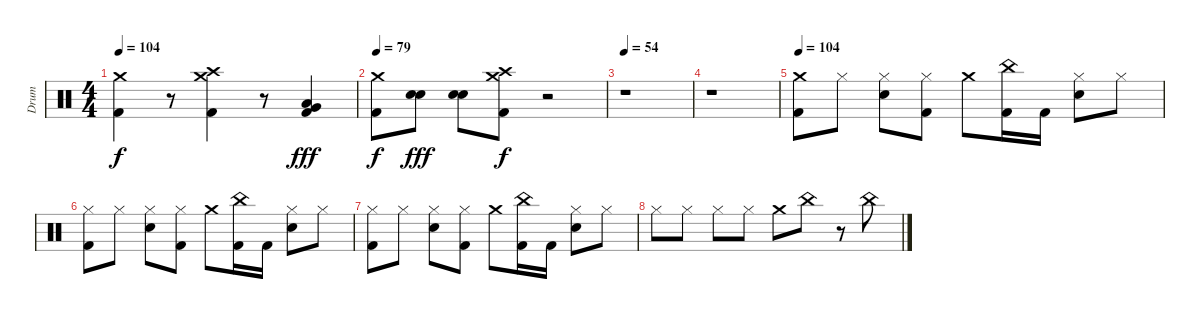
\track ("Drum" "Drum") {instrument percussion}
\staff {score}
\articulation defaults
\ts (4 4)
\tempo 104
\clef neutral
\ks c
("Crash medium (hit)" "Kick (hit) 2").4{dy f} r.8 ("Crash high (hit)" "Crash medium (hit)" "Kick (hit) 2").4 r.8 ("Very Low Tom (hit)" "Low Tom (hit)" "Kick (hit) 2").4{dy fff} |
\tempo 79
("Crash medium (hit)" "Kick (hit) 2").8{dy f} ("Snare (hit) 2" "Electric Snare (hit)").8{dy fff} ("Snare (hit) 2" "Electric Snare (hit)").8 ("Crash high (hit)" "Crash medium (hit)" "Kick (hit) 2").8{dy f} r.2 |
\tempo 54
r.1 |
r.1 |
\tempo 104
("Crash medium (hit)" "Kick (hit) 2").8 "Hi-Hat (closed)".8 ("Snare (hit) 2" "Hi-Hat (closed)").8 ("Hi-Hat (closed)" "Kick (hit) 2").8 "Crash medium (hit)".8 ("China (hit)" "Kick (hit) 2").16 "Kick (hit) 2".16 ("Snare (hit) 2" "Hi-Hat (closed)").8 "Hi-Hat (closed)".8 |
("Hi-Hat (closed)" "Kick (hit) 2").8 "Hi-Hat (closed)".8 ("Snare (hit) 2" "Hi-Hat (closed)").8 ("Hi-Hat (closed)" "Kick (hit) 2").8 "Crash medium (hit)".8 ("China (hit)" "Kick (hit) 2").16 "Kick (hit) 2".16 ("Snare (hit) 2" "Hi-Hat (closed)").8 "Hi-Hat (closed)".8 |
("Hi-Hat (closed)" "Kick (hit) 2").8 "Hi-Hat (closed)".8 ("Snare (hit) 2" "Hi-Hat (closed)").8 ("Hi-Hat (closed)" "Kick (hit) 2").8 "Crash medium (hit)".8 ("China (hit)" "Kick (hit) 2").16 "Kick (hit) 2".16 ("Snare (hit) 2" "Hi-Hat (closed)").8 "Hi-Hat (closed)".8 |
"Hi-Hat (closed)".8 "Hi-Hat (closed)".8 "Hi-Hat (closed)".8 "Hi-Hat (closed)".8 "Crash medium (hit)".8 "China (hit)".8 r.8 "China (hit)".8
